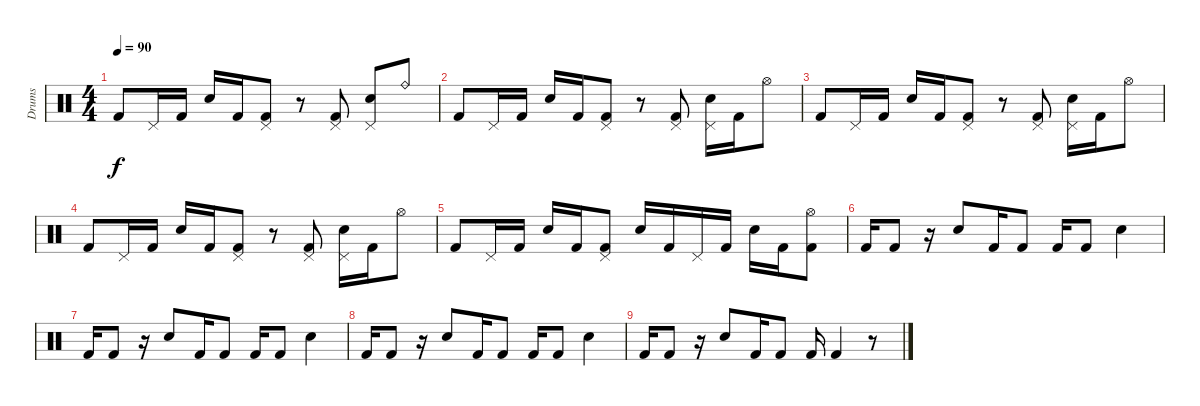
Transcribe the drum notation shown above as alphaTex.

\track ("Drums" "Drums") {instrument percussion}
\staff {score}
\articulation defaults
\ts (4 4)
\tempo 90
\clef neutral
\ks c "Kick (hit) 2".8{dy f} "Pedal Hi-Hat (hit)".16 "Kick (hit) 2".16 "Electric Snare (hit)".16 "Kick (hit) 2".16
("Pedal Hi-Hat (hit)" "Kick (hit) 2").8 r.8 ("Pedal Hi-Hat (hit)" "Kick (hit) 2").8 ("Pedal Hi-Hat (hit)" "Electric Snare (hit)").8 "Ride (bell)".8 |
"Kick (hit) 2".8 "Pedal Hi-Hat (hit)".16 "Kick (hit) 2".16 "Electric Snare (hit)".16 "Kick (hit) 2".16 ("Pedal Hi-Hat (hit)" "Kick (hit) 2").8 r.8 ("Pedal Hi-Hat (hit)" "Kick (hit) 2").8 ("Pedal Hi-Hat (hit)" "Electric Snare (hit)").16 "Kick (hit) 2".16 "Hi-Hat (open)".8 |
"Kick (hit) 2".8 "Pedal Hi-Hat (hit)".16 "Kick (hit) 2".16 "Electric Snare (hit)".16 "Kick (hit) 2".16 ("Pedal Hi-Hat (hit)" "Kick (hit) 2").8 r.8 ("Pedal Hi-Hat (hit)" "Kick (hit) 2").8 ("Pedal Hi-Hat (hit)" "Electric Snare (hit)").16 "Kick (hit) 2".16 "Hi-Hat (open)".8 |
"Kick (hit) 2".8 "Pedal Hi-Hat (hit)".16 "Kick (hit) 2".16 "Electric Snare (hit)".16 "Kick (hit) 2".16 ("Pedal Hi-Hat (hit)" "Kick (hit) 2").8 r.8 ("Pedal Hi-Hat (hit)" "Kick (hit) 2").8 ("Pedal Hi-Hat (hit)" "Electric Snare (hit)").16 "Kick (hit) 2".16 "Hi-Hat (open)".8 |
"Kick (hit) 2".8 "Pedal Hi-Hat (hit)".16 "Kick (hit) 2".16 "Electric Snare (hit)".16 "Kick (hit) 2".16 ("Pedal Hi-Hat (hit)" "Kick (hit) 2").8 "Electric Snare (hit)".16 "Kick (hit) 2".16 "Pedal Hi-Hat (hit)".16 "Kick (hit) 2".16 "Electric Snare (hit)".16 "Kick (hit) 2".16 ("Hi-Hat (open)" "Kick (hit) 2").8 |
"Kick (hit) 2".16 "Kick (hit) 2".8 r.16 "Electric Snare (hit)".8 "Kick (hit) 2".16 "Kick (hit) 2".8 "Kick (hit) 2".16 "Kick (hit) 2".8 "Electric Snare (hit)".4 |
"Kick (hit) 2".16 "Kick (hit) 2".8 r.16 "Electric Snare (hit)".8 "Kick (hit) 2".16 "Kick (hit) 2".8 "Kick (hit) 2".16 "Kick (hit) 2".8 "Electric Snare (hit)".4 |
"Kick (hit) 2".16 "Kick (hit) 2".8 r.16 "Electric Snare (hit)".8 "Kick (hit) 2".16 "Kick (hit) 2".8 "Kick (hit) 2".16 "Kick (hit) 2".8 "Electric Snare (hit)".4 |
"Kick (hit) 2".16 "Kick (hit) 2".8 r.16 "Electric Snare (hit)".8 "Kick (hit) 2".16 "Kick (hit) 2".8 "Kick (hit) 2".16 "Kick (hit) 2".4 r.8
